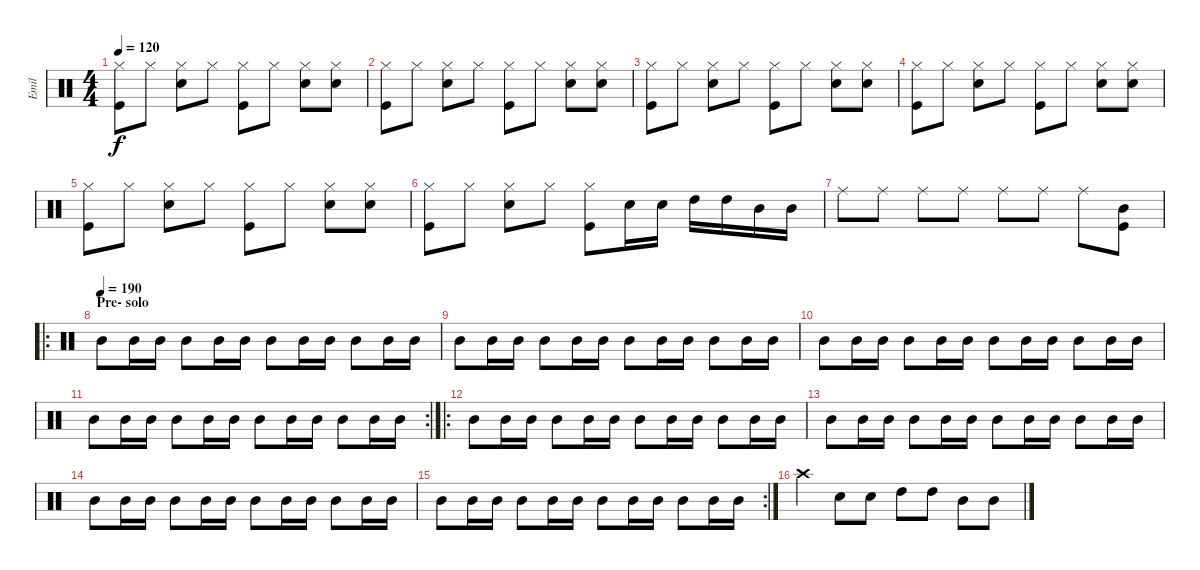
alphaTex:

\track ("Emil" "Emil") {instrument percussion}
\staff {score}
\articulation defaults
\ts (4 4)
\tempo 120
\clef neutral
\ks c
("Hi-Hat (closed)" "Kick (hit)").8{dy f} "Hi-Hat (closed)".8 ("Hi-Hat (closed)" "Electric Snare (hit)").8 "Hi-Hat (closed)".8 ("Hi-Hat (closed)" "Kick (hit)").8 "Hi-Hat (closed)".8 ("Hi-Hat (closed)" "Electric Snare (hit)").8 ("Hi-Hat (closed)" "Electric Snare (hit)").8 |
("Hi-Hat (closed)" "Kick (hit)").8 "Hi-Hat (closed)".8 ("Hi-Hat (closed)" "Electric Snare (hit)").8 "Hi-Hat (closed)".8 ("Hi-Hat (closed)" "Kick (hit)").8 "Hi-Hat (closed)".8 ("Hi-Hat (closed)" "Electric Snare (hit)").8 ("Hi-Hat (closed)" "Electric Snare (hit)").8 |
("Hi-Hat (closed)" "Kick (hit)").8 "Hi-Hat (closed)".8 ("Hi-Hat (closed)" "Electric Snare (hit)").8 "Hi-Hat (closed)".8 ("Hi-Hat (closed)" "Kick (hit)").8 "Hi-Hat (closed)".8 ("Hi-Hat (closed)" "Electric Snare (hit)").8 ("Hi-Hat (closed)" "Electric Snare (hit)").8 |
("Hi-Hat (closed)" "Kick (hit)").8 "Hi-Hat (closed)".8 ("Hi-Hat (closed)" "Electric Snare (hit)").8 "Hi-Hat (closed)".8 ("Hi-Hat (closed)" "Kick (hit)").8 "Hi-Hat (closed)".8 ("Hi-Hat (closed)" "Electric Snare (hit)").8 ("Hi-Hat (closed)" "Electric Snare (hit)").8 |
("Hi-Hat (closed)" "Kick (hit)").8 "Hi-Hat (closed)".8 ("Hi-Hat (closed)" "Electric Snare (hit)").8 "Hi-Hat (closed)".8 ("Hi-Hat (closed)" "Kick (hit)").8 "Hi-Hat (closed)".8 ("Hi-Hat (closed)" "Electric Snare (hit)").8 ("Hi-Hat (closed)" "Electric Snare (hit)").8 |
("Hi-Hat (closed)" "Kick (hit)").8 "Hi-Hat (closed)".8 ("Hi-Hat (closed)" "Electric Snare (hit)").8 "Hi-Hat (closed)".8 ("Hi-Hat (closed)" "Kick (hit)").8 "Electric Snare (hit)".16 "Electric Snare (hit)".16 "High Tom (hit)".16 "High Tom (hit)".16 "Mid Tom (hit)".16 "Mid Tom (hit)".16 |
"Ride (middle)".8 "Ride (middle)".8 "Ride (middle)".8 "Ride (middle)".8 "Ride (middle)".8 "Ride (middle)".8 "Ride (middle)".8 ("Mid Tom (hit)" "Kick (hit)").8 |
\ro
\section ("" "Pre- solo")
\tempo (190)
"Mid Tom (hit)".8 "Mid Tom (hit)".16 "Mid Tom (hit)".16 "Mid Tom (hit)".8 "Mid Tom (hit)".16 "Mid Tom (hit)".16 "Mid Tom (hit)".8 "Mid Tom (hit)".16 "Mid Tom (hit)".16 "Mid Tom (hit)".8 "Mid Tom (hit)".16 "Mid Tom (hit)".16 |
"Mid Tom (hit)".8 "Mid Tom (hit)".16 "Mid Tom (hit)".16 "Mid Tom (hit)".8 "Mid Tom (hit)".16 "Mid Tom (hit)".16 "Mid Tom (hit)".8 "Mid Tom (hit)".16 "Mid Tom (hit)".16 "Mid Tom (hit)".8 "Mid Tom (hit)".16 "Mid Tom (hit)".16 |
"Mid Tom (hit)".8 "Mid Tom (hit)".16 "Mid Tom (hit)".16 "Mid Tom (hit)".8 "Mid Tom (hit)".16 "Mid Tom (hit)".16 "Mid Tom (hit)".8 "Mid Tom (hit)".16 "Mid Tom (hit)".16 "Mid Tom (hit)".8 "Mid Tom (hit)".16 "Mid Tom (hit)".16 |
\rc 2 "Mid Tom (hit)".8 "Mid Tom (hit)".16 "Mid Tom (hit)".16 "Mid Tom (hit)".8 "Mid Tom (hit)".16 "Mid Tom (hit)".16 "Mid Tom (hit)".8 "Mid Tom (hit)".16 "Mid Tom (hit)".16 "Mid Tom (hit)".8 "Mid Tom (hit)".16 "Mid Tom (hit)".16
|
\ro "Mid Tom (hit)".8 "Mid Tom (hit)".16 "Mid Tom (hit)".16 "Mid Tom (hit)".8 "Mid Tom (hit)".16 "Mid Tom (hit)".16 "Mid Tom (hit)".8 "Mid Tom (hit)".16 "Mid Tom (hit)".16 "Mid Tom (hit)".8 "Mid Tom (hit)".16 "Mid Tom (hit)".16
|
"Mid Tom (hit)".8 "Mid Tom (hit)".16 "Mid Tom (hit)".16 "Mid Tom (hit)".8 "Mid Tom (hit)".16 "Mid Tom (hit)".16 "Mid Tom (hit)".8 "Mid Tom (hit)".16 "Mid Tom (hit)".16 "Mid Tom (hit)".8 "Mid Tom (hit)".16 "Mid Tom (hit)".16 |
"Mid Tom (hit)".8 "Mid Tom (hit)".16 "Mid Tom (hit)".16 "Mid Tom (hit)".8 "Mid Tom (hit)".16 "Mid Tom (hit)".16 "Mid Tom (hit)".8 "Mid Tom (hit)".16 "Mid Tom (hit)".16 "Mid Tom (hit)".8 "Mid Tom (hit)".16 "Mid Tom (hit)".16 |
\rc 2 "Mid Tom (hit)".8 "Mid Tom (hit)".16 "Mid Tom (hit)".16 "Mid Tom (hit)".8 "Mid Tom (hit)".16 "Mid Tom (hit)".16 "Mid Tom (hit)".8 "Mid Tom (hit)".16 "Mid Tom (hit)".16 "Mid Tom (hit)".8 "Mid Tom (hit)".16 "Mid Tom (hit)".16
|
"Crash high (hit)".4 "Electric Snare (hit)".8 "Electric Snare (hit)".8 "High Tom (hit)".8 "High Tom (hit)".8 "Mid Tom (hit)".8 "Mid Tom (hit)".8
